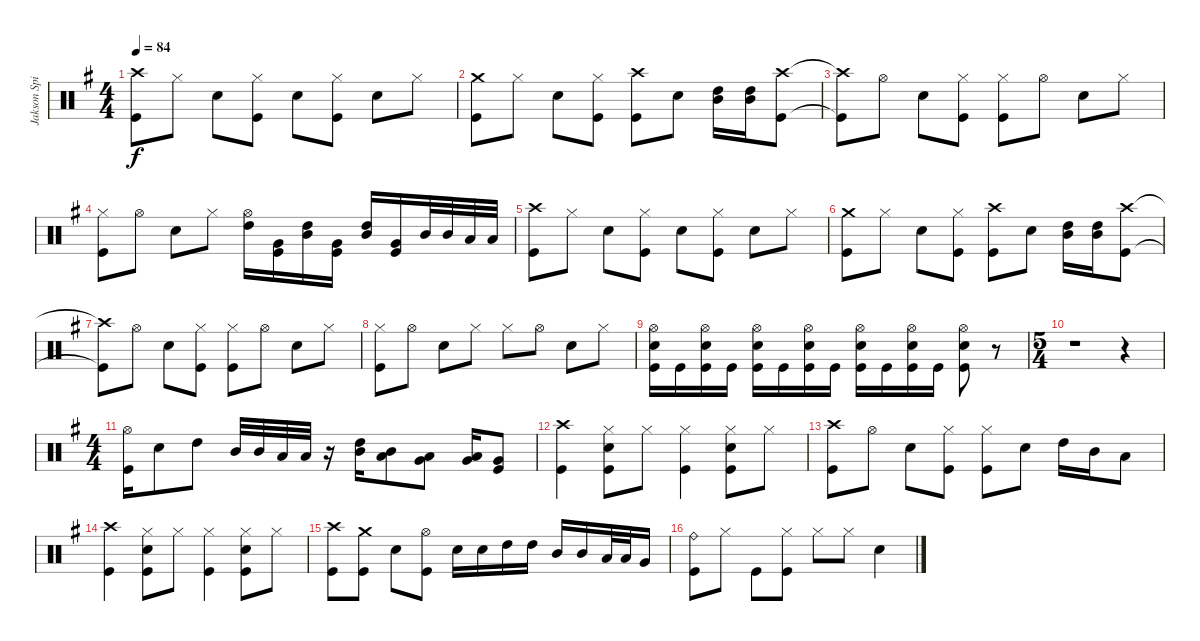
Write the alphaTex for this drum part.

\track ("Jakson Spires Drums" "Jakson Spi") {instrument percussion}
\staff {score}
\articulation defaults
\ts (4 4)
\tempo 84
\clef neutral
\ks g
("Crash high (hit)" "Kick (hit)").8{dy f} "Hi-Hat (closed)".8 "Snare (hit) 2".8 ("Hi-Hat (closed)" "Kick (hit)").8 "Snare (hit) 2".8 ("Hi-Hat (closed)" "Kick (hit)").8 "Snare (hit) 2".8 "Hi-Hat (closed)".8 |
("Crash medium (hit)" "Kick (hit)").8 "Hi-Hat (closed)".8 "Snare (hit) 2".8 ("Hi-Hat (closed)" "Kick (hit)").8 ("Crash high (hit)" "Kick (hit)").8 "Snare (hit) 2".8 ("High Tom (hit)" "Mid Tom (hit)").16 ("High Tom (hit)" "Mid Tom (hit)").16 ("Crash high (hit)" "Kick (hit)").8 |
("Crash high (hit)"{t} "Kick (hit)"{t}).8 "Hi-Hat (open)".8 "Snare (hit) 2".8 ("Hi-Hat (closed)" "Kick (hit)").8 ("Hi-Hat (closed)" "Kick (hit)").8 "Hi-Hat (open)".8 "Snare (hit) 2".8 "Hi-Hat (closed)".8 |
("Hi-Hat (closed)" "Kick (hit)").8 "Hi-Hat (open)".8 "Snare (hit) 2".8 "Hi-Hat (closed)".8 ("High Tom (hit)" "Hi-Hat (open)").16 ("Very Low Tom (hit)" "Kick (hit)").16 ("High Tom (hit)" "Mid Tom (hit)").16 ("Very Low Tom (hit)" "Kick (hit)").16 ("High Tom (hit)" "Mid Tom (hit)").16 ("Very Low Tom (hit)" "Kick (hit)").16 "Mid Tom (hit)".32 "Mid Tom (hit)".32 "Low Tom (hit)".32 "Low Tom (hit)".32 |
("Crash high (hit)" "Kick (hit)").8 "Hi-Hat (closed)".8 "Snare (hit) 2".8 ("Hi-Hat (closed)" "Kick (hit)").8 "Snare (hit) 2".8 ("Hi-Hat (closed)" "Kick (hit)").8 "Snare (hit) 2".8 "Hi-Hat (closed)".8 |
("Crash medium (hit)" "Kick (hit)").8 "Hi-Hat (closed)".8 "Snare (hit) 2".8 ("Hi-Hat (closed)" "Kick (hit)").8 ("Crash high (hit)" "Kick (hit)").8 "Snare (hit) 2".8 ("High Tom (hit)" "Mid Tom (hit)").16 ("High Tom (hit)" "Mid Tom (hit)").16 ("Crash high (hit)" "Kick (hit)").8 |
("Crash high (hit)"{t} "Kick (hit)"{t}).8 "Hi-Hat (open)".8 "Snare (hit) 2".8 ("Hi-Hat (closed)" "Kick (hit)").8 ("Hi-Hat (closed)" "Kick (hit)").8 "Hi-Hat (open)".8 "Snare (hit) 2".8 "Hi-Hat (closed)".8 |
("Hi-Hat (closed)" "Kick (hit)").8 "Hi-Hat (open)".8 "Snare (hit) 2".8 "Hi-Hat (closed)".8 "Hi-Hat (closed)".8 "Hi-Hat (open)".8 "Snare (hit) 2".8 "Hi-Hat (closed)".8 |
("Hi-Hat (open)" "Snare (hit) 2" "Kick (hit)").16 "Kick (hit)".16 ("Hi-Hat (open)" "Snare (hit) 2" "Kick (hit)").16 "Kick (hit)".16 ("Hi-Hat (open)" "Snare (hit) 2" "Kick (hit)").16 "Kick (hit)".16 ("Hi-Hat (open)" "Snare (hit) 2" "Kick (hit)").16 "Kick (hit)".16 ("Hi-Hat (open)" "Snare (hit) 2" "Kick (hit)").16 "Kick (hit)".16 ("Hi-Hat (open)" "Snare (hit) 2" "Kick (hit)").16 "Kick (hit)".16 ("Hi-Hat (open)" "Snare (hit) 2" "Kick (hit)").8 r.8 |
\ts (5 4)
r.1 r.4 |
\ts (4 4)
("Hi-Hat (open)" "Kick (hit)").16 "Snare (hit) 2".8 "High Tom (hit)".8 "Mid Tom (hit)".32 "Mid Tom (hit)".32 "Low Tom (hit)".32 "Low Tom (hit)".32 r.16 ("High Tom (hit)" "Mid Tom (hit)").16 ("Mid Tom (hit)" "Low Tom (hit)").8 ("Low Tom (hit)" "Very Low Tom (hit)").8 ("Low Tom (hit)" "Very Low Tom (hit)").16 ("Very Low Tom (hit)" "Kick (hit)").8 |
("Crash high (hit)" "Kick (hit)").4 ("Hi-Hat (closed)" "Snare (hit) 2" "Kick (hit)").8 "Hi-Hat (closed)".8 ("Hi-Hat (closed)" "Kick (hit)").4 ("Hi-Hat (closed)" "Snare (hit) 2" "Kick (hit)").8 "Hi-Hat (closed)".8 |
("Crash high (hit)" "Kick (hit)").8 "Hi-Hat (open)".8 "Snare (hit) 2".8 ("Hi-Hat (closed)" "Kick (hit)").8 ("Hi-Hat (closed)" "Kick (hit)").8 "Snare (hit) 2".8 "High Tom (hit)".16 "Mid Tom (hit)".16 "Low Tom (hit)".8 |
("Crash high (hit)" "Kick (hit)").4 ("Hi-Hat (closed)" "Snare (hit) 2" "Kick (hit)").8 "Hi-Hat (closed)".8 ("Hi-Hat (closed)" "Kick (hit)").4 ("Hi-Hat (closed)" "Snare (hit) 2" "Kick (hit)").8 "Hi-Hat (closed)".8 |
("Crash high (hit)" "Kick (hit)").8 ("Crash medium (hit)" "Kick (hit)").8 "Snare (hit) 2".8 ("Hi-Hat (open)" "Kick (hit)").8 "Snare (hit) 2".16 "Snare (hit) 2".16 "High Tom (hit)".16 "High Tom (hit)".16 "Mid Tom (hit)".16 "Mid Tom (hit)".16 "Low Tom (hit)".32 "Low Tom (hit)".32 "Very Low Tom (hit)".16 |
("Ride (bell)" "Kick (hit)").8 "Hi-Hat (closed)".8 "Kick (hit)".8 ("Hi-Hat (closed)" "Kick (hit)").8 "Hi-Hat (closed)".8 "Hi-Hat (closed)".8 "Snare (hit) 2".4
